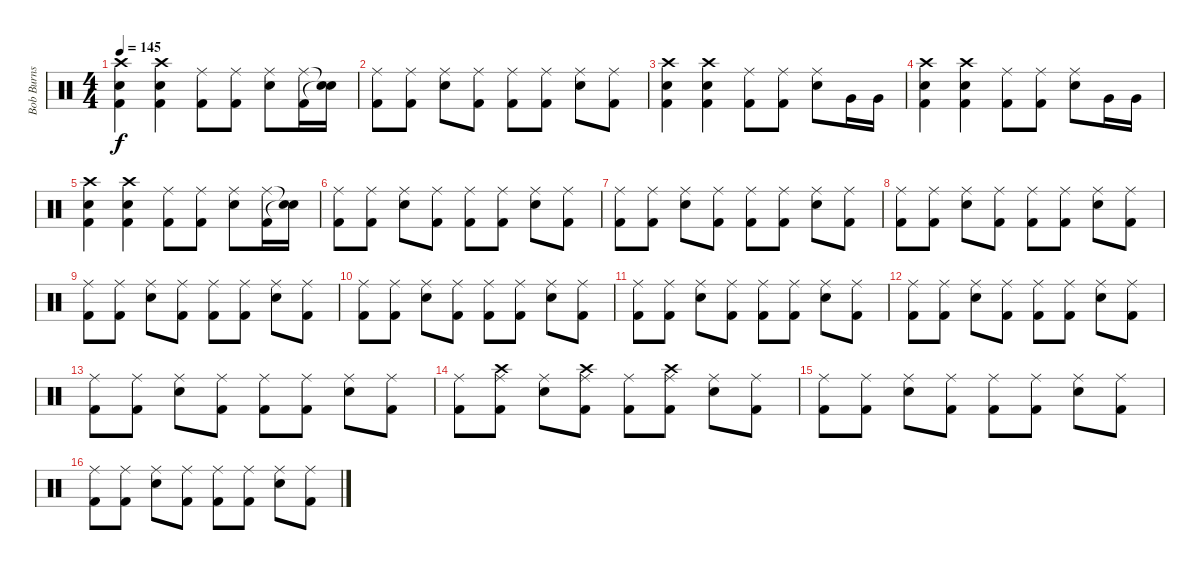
\track ("Bob Burns (Drums)" "Bob Burns ") {instrument percussion}
\staff {score}
\articulation defaults
\ts (4 4)
\tempo 145
\clef neutral
\ks c
("Crash high (hit)" "Electric Snare (hit)" "Kick (hit) 2").4{dy f} ("Crash high (hit)" "Electric Snare (hit)" "Kick (hit) 2").4 ("Ride (middle)" "Kick (hit) 2").8 ("Ride (middle)" "Kick (hit) 2").8 ("Ride (middle)" "Electric Snare (hit)").8 ("Ride (middle)" "Kick (hit) 2").16 ("Snare (hit)"{t} "Snare (hit)"{t}).16 |
("Ride (middle)" "Kick (hit) 2").8 ("Ride (middle)" "Kick (hit) 2").8 ("Ride (middle)" "Electric Snare (hit)").8 ("Ride (middle)" "Kick (hit) 2").8 ("Ride (middle)" "Kick (hit) 2").8 ("Ride (middle)" "Kick (hit) 2").8 ("Ride (middle)" "Electric Snare (hit)").8 ("Ride (middle)" "Kick (hit) 2").8 |
("Crash high (hit)" "Electric Snare (hit)" "Kick (hit) 2").4 ("Crash high (hit)" "Electric Snare (hit)" "Kick (hit) 2").4 ("Ride (middle)" "Kick (hit) 2").8 ("Ride (middle)" "Kick (hit) 2").8 ("Ride (middle)" "Electric Snare (hit)").8 "Very Low Tom (hit)".16 "Very Low Tom (hit)".16 |
("Crash high (hit)" "Electric Snare (hit)" "Kick (hit) 2").4 ("Crash high (hit)" "Electric Snare (hit)" "Kick (hit) 2").4 ("Ride (middle)" "Kick (hit) 2").8 ("Ride (middle)" "Kick (hit) 2").8 ("Ride (middle)" "Electric Snare (hit)").8 "Very Low Tom (hit)".16 "Very Low Tom (hit)".16 |
("Crash high (hit)" "Electric Snare (hit)" "Kick (hit) 2").4 ("Crash high (hit)" "Electric Snare (hit)" "Kick (hit) 2").4 ("Ride (middle)" "Kick (hit) 2").8 ("Ride (middle)" "Kick (hit) 2").8 ("Ride (middle)" "Electric Snare (hit)").8 ("Ride (middle)" "Kick (hit) 2").16 ("Snare (hit)"{t} "Snare (hit)"{t}).16 |
("Ride (middle)" "Kick (hit) 2").8 ("Ride (middle)" "Kick (hit) 2").8 ("Ride (middle)" "Electric Snare (hit)").8 ("Ride (middle)" "Kick (hit) 2").8 ("Ride (middle)" "Kick (hit) 2").8 ("Ride (middle)" "Kick (hit) 2").8 ("Ride (middle)" "Electric Snare (hit)").8 ("Ride (middle)" "Kick (hit) 2").8 |
("Ride (middle)" "Kick (hit) 2").8 ("Ride (middle)" "Kick (hit) 2").8 ("Ride (middle)" "Electric Snare (hit)").8 ("Ride (middle)" "Kick (hit) 2").8 ("Ride (middle)" "Kick (hit) 2").8 ("Ride (middle)" "Kick (hit) 2").8 ("Ride (middle)" "Electric Snare (hit)").8 ("Ride (middle)" "Kick (hit) 2").8 |
("Ride (middle)" "Kick (hit) 2").8 ("Ride (middle)" "Kick (hit) 2").8 ("Ride (middle)" "Electric Snare (hit)").8 ("Ride (middle)" "Kick (hit) 2").8 ("Ride (middle)" "Kick (hit) 2").8 ("Ride (middle)" "Kick (hit) 2").8 ("Ride (middle)" "Electric Snare (hit)").8 ("Ride (middle)" "Kick (hit) 2").8 |
("Ride (middle)" "Kick (hit) 2").8 ("Ride (middle)" "Kick (hit) 2").8 ("Ride (middle)" "Electric Snare (hit)").8 ("Ride (middle)" "Kick (hit) 2").8 ("Ride (middle)" "Kick (hit) 2").8 ("Ride (middle)" "Kick (hit) 2").8 ("Ride (middle)" "Electric Snare (hit)").8 ("Ride (middle)" "Kick (hit) 2").8 |
("Ride (middle)" "Kick (hit) 2").8 ("Ride (middle)" "Kick (hit) 2").8 ("Ride (middle)" "Electric Snare (hit)").8 ("Ride (middle)" "Kick (hit) 2").8 ("Ride (middle)" "Kick (hit) 2").8 ("Ride (middle)" "Kick (hit) 2").8 ("Ride (middle)" "Electric Snare (hit)").8 ("Ride (middle)" "Kick (hit) 2").8 |
("Ride (middle)" "Kick (hit) 2").8 ("Ride (middle)" "Kick (hit) 2").8 ("Ride (middle)" "Electric Snare (hit)").8 ("Ride (middle)" "Kick (hit) 2").8 ("Ride (middle)" "Kick (hit) 2").8 ("Ride (middle)" "Kick (hit) 2").8 ("Ride (middle)" "Electric Snare (hit)").8 ("Ride (middle)" "Kick (hit) 2").8 |
("Ride (middle)" "Kick (hit) 2").8 ("Ride (middle)" "Kick (hit) 2").8 ("Ride (middle)" "Electric Snare (hit)").8 ("Ride (middle)" "Kick (hit) 2").8 ("Ride (middle)" "Kick (hit) 2").8 ("Ride (middle)" "Kick (hit) 2").8 ("Ride (middle)" "Electric Snare (hit)").8 ("Ride (middle)" "Kick (hit) 2").8 |
("Ride (middle)" "Kick (hit) 2").8 ("Ride (middle)" "Kick (hit) 2").8 ("Ride (middle)" "Electric Snare (hit)").8 ("Ride (middle)" "Kick (hit) 2").8 ("Ride (middle)" "Kick (hit) 2").8 ("Ride (middle)" "Kick (hit) 2").8 ("Ride (middle)" "Electric Snare (hit)").8 ("Ride (middle)" "Kick (hit) 2").8 |
("Ride (middle)" "Kick (hit) 2").8 ("Ride (middle)" "Crash high (hit)" "Kick (hit) 2").8 ("Ride (middle)" "Electric Snare (hit)").8 ("Ride (middle)" "Crash high (hit)" "Kick (hit) 2").8 ("Ride (middle)" "Kick (hit) 2").8 ("Ride (middle)" "Crash high (hit)" "Kick (hit) 2").8 ("Ride (middle)" "Electric Snare (hit)").8 ("Ride (middle)" "Kick (hit) 2").8 |
("Ride (middle)" "Kick (hit) 2").8 ("Ride (middle)" "Kick (hit) 2").8 ("Ride (middle)" "Electric Snare (hit)").8 ("Ride (middle)" "Kick (hit) 2").8 ("Ride (middle)" "Kick (hit) 2").8 ("Ride (middle)" "Kick (hit) 2").8 ("Ride (middle)" "Electric Snare (hit)").8 ("Ride (middle)" "Kick (hit) 2").8 |
("Ride (middle)" "Kick (hit) 2").8 ("Ride (middle)" "Kick (hit) 2").8 ("Ride (middle)" "Electric Snare (hit)").8 ("Ride (middle)" "Kick (hit) 2").8 ("Ride (middle)" "Kick (hit) 2").8 ("Ride (middle)" "Kick (hit) 2").8 ("Ride (middle)" "Electric Snare (hit)").8 ("Ride (middle)" "Kick (hit) 2").8
